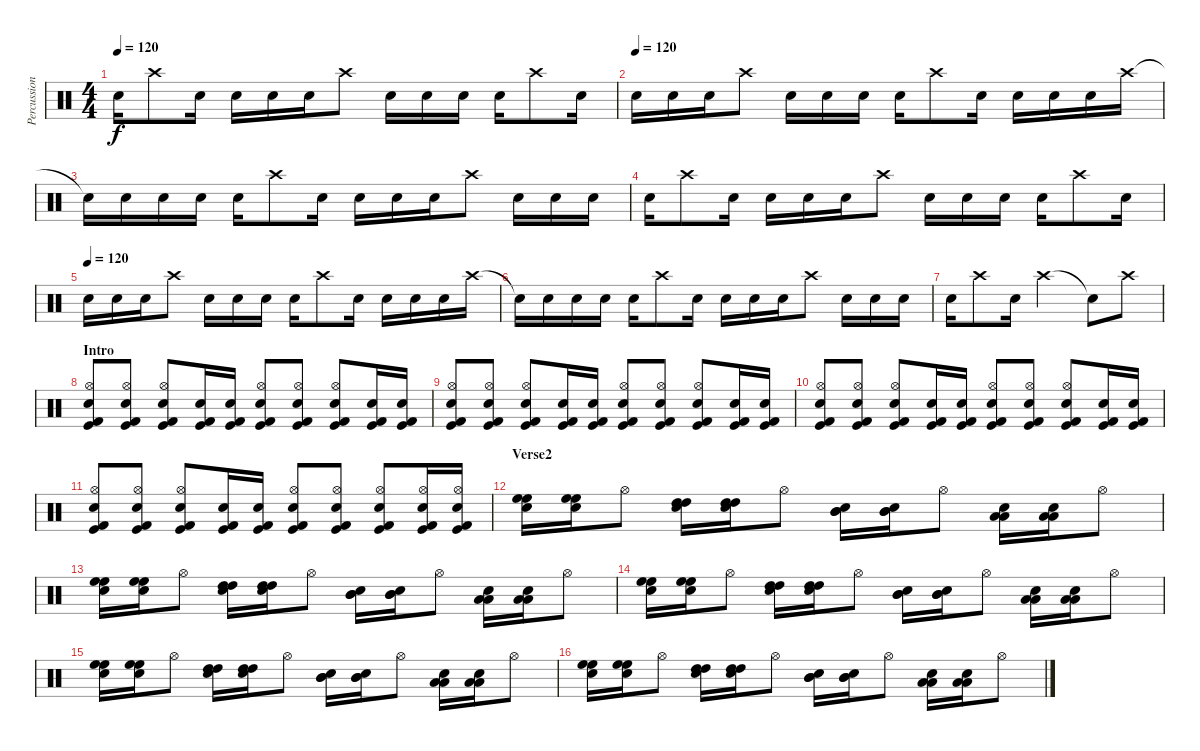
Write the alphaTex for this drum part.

\track ("Percussion" "Percussion") {instrument percussion}
\staff {score}
\articulation defaults
\ts (4 4)
\tempo 120
\clef neutral
\ks c "Electric Snare (hit)".16{dy f} "Crash high (hit)".8 "Electric Snare (hit)".16 "Electric Snare (hit)".16 "Electric Snare (hit)".16 "Electric Snare (hit)".16 "Crash high (hit)".8 "Electric Snare (hit)".16 "Electric Snare (hit)".16 "Electric Snare (hit)".16 "Electric Snare (hit)".16 "Crash high (hit)".8 "Electric Snare (hit)".16
|
\tempo (120)
"Electric Snare (hit)".16 "Electric Snare (hit)".16 "Electric Snare (hit)".16 "Crash high (hit)".8 "Electric Snare (hit)".16 "Electric Snare (hit)".16 "Electric Snare (hit)".16 "Electric Snare (hit)".16 "Crash high (hit)".8 "Electric Snare (hit)".16 "Electric Snare (hit)".16 "Electric Snare (hit)".16 "Electric Snare (hit)".16 "Crash high (hit)".16 |
"Snare (hit)"{t}.16 "Electric Snare (hit)".16 "Electric Snare (hit)".16 "Electric Snare (hit)".16 "Electric Snare (hit)".16 "Crash high (hit)".8 "Electric Snare (hit)".16 "Electric Snare (hit)".16 "Electric Snare (hit)".16 "Electric Snare (hit)".16 "Crash high (hit)".8 "Electric Snare (hit)".16 "Electric Snare (hit)".16 "Electric Snare (hit)".16 |
"Electric Snare (hit)".16 "Crash high (hit)".8 "Electric Snare (hit)".16 "Electric Snare (hit)".16 "Electric Snare (hit)".16 "Electric Snare (hit)".16 "Crash high (hit)".8 "Electric Snare (hit)".16 "Electric Snare (hit)".16 "Electric Snare (hit)".16 "Electric Snare (hit)".16 "Crash high (hit)".8 "Electric Snare (hit)".16 |
\tempo (120)
"Electric Snare (hit)".16 "Electric Snare (hit)".16 "Electric Snare (hit)".16 "Crash high (hit)".8 "Electric Snare (hit)".16 "Electric Snare (hit)".16 "Electric Snare (hit)".16 "Electric Snare (hit)".16 "Crash high (hit)".8 "Electric Snare (hit)".16 "Electric Snare (hit)".16 "Electric Snare (hit)".16 "Electric Snare (hit)".16 "Crash high (hit)".16 |
"Snare (hit)"{t}.16 "Electric Snare (hit)".16 "Electric Snare (hit)".16 "Electric Snare (hit)".16 "Electric Snare (hit)".16 "Crash high (hit)".8 "Electric Snare (hit)".16 "Electric Snare (hit)".16 "Electric Snare (hit)".16 "Electric Snare (hit)".16 "Crash high (hit)".8 "Electric Snare (hit)".16 "Electric Snare (hit)".16 "Electric Snare (hit)".16 |
"Electric Snare (hit)".16 "Crash high (hit)".8 "Electric Snare (hit)".16 "Crash high (hit)".2 "Snare (hit)"{t}.8 "Crash high (hit)".8 |
\section ("" "Intro")
("Snare (hit) 2" "Hi-Hat (open)" "Kick (hit) 2" "Kick (hit)").8 ("Snare (hit) 2" "Hi-Hat (open)" "Kick (hit) 2" "Kick (hit)").8 ("Snare (hit) 2" "Hi-Hat (open)" "Kick (hit) 2" "Kick (hit)").8 ("Kick (hit) 2" "Kick (hit)" "Electric Snare (hit)").16 ("Kick (hit) 2" "Kick (hit)" "Electric Snare (hit)").16 ("Snare (hit) 2" "Hi-Hat (open)" "Kick (hit) 2" "Kick (hit)").8 ("Snare (hit) 2" "Hi-Hat (open)" "Kick (hit) 2" "Kick (hit)").8 ("Snare (hit) 2" "Hi-Hat (open)" "Kick (hit) 2" "Kick (hit)").8 ("Kick (hit) 2" "Kick (hit)" "Electric Snare (hit)").16 ("Kick (hit) 2" "Kick (hit)" "Electric Snare (hit)").16 |
("Snare (hit) 2" "Hi-Hat (open)" "Kick (hit) 2" "Kick (hit)").8 ("Snare (hit) 2" "Hi-Hat (open)" "Kick (hit) 2" "Kick (hit)").8 ("Snare (hit) 2" "Hi-Hat (open)" "Kick (hit) 2" "Kick (hit)").8 ("Kick (hit) 2" "Kick (hit)" "Electric Snare (hit)").16 ("Kick (hit) 2" "Kick (hit)" "Electric Snare (hit)").16 ("Snare (hit) 2" "Hi-Hat (open)" "Kick (hit) 2" "Kick (hit)").8 ("Snare (hit) 2" "Hi-Hat (open)" "Kick (hit) 2" "Kick (hit)").8 ("Snare (hit) 2" "Hi-Hat (open)" "Kick (hit) 2" "Kick (hit)").8 ("Kick (hit) 2" "Kick (hit)" "Electric Snare (hit)").16 ("Kick (hit) 2" "Kick (hit)" "Electric Snare (hit)").16 |
("Snare (hit) 2" "Hi-Hat (open)" "Kick (hit) 2" "Kick (hit)").8 ("Snare (hit) 2" "Hi-Hat (open)" "Kick (hit) 2" "Kick (hit)").8 ("Snare (hit) 2" "Hi-Hat (open)" "Kick (hit) 2" "Kick (hit)").8 ("Kick (hit) 2" "Kick (hit)" "Electric Snare (hit)").16 ("Kick (hit) 2" "Kick (hit)" "Electric Snare (hit)").16 ("Snare (hit) 2" "Hi-Hat (open)" "Kick (hit) 2" "Kick (hit)").8 ("Snare (hit) 2" "Hi-Hat (open)" "Kick (hit) 2" "Kick (hit)").8 ("Snare (hit) 2" "Hi-Hat (open)" "Kick (hit) 2" "Kick (hit)").8 ("Kick (hit) 2" "Kick (hit)" "Electric Snare (hit)").16 ("Kick (hit) 2" "Kick (hit)" "Electric Snare (hit)").16 |
("Snare (hit) 2" "Hi-Hat (open)" "Kick (hit) 2" "Kick (hit)").8 ("Snare (hit) 2" "Hi-Hat (open)" "Kick (hit) 2" "Kick (hit)").8 ("Snare (hit) 2" "Hi-Hat (open)" "Kick (hit) 2" "Kick (hit)").8 ("Kick (hit) 2" "Kick (hit)" "Electric Snare (hit)").16 ("Kick (hit) 2" "Kick (hit)" "Electric Snare (hit)").16 ("Snare (hit) 2" "Hi-Hat (open)" "Kick (hit) 2" "Kick (hit)").8 ("Snare (hit) 2" "Hi-Hat (open)" "Kick (hit) 2" "Kick (hit)").8 ("Snare (hit) 2" "Hi-Hat (open)" "Kick (hit) 2" "Kick (hit)").8 ("Kick (hit) 2" "Kick (hit)" "Electric Snare (hit)" "Hi-Hat (open)").16 ("Kick (hit) 2" "Kick (hit)" "Electric Snare (hit)" "Hi-Hat (open)").16 |
\section ("" "Verse2")
("Snare (hit) 2" "High Floor Tom (hit)" "High Floor Tom (hit)").16 ("Snare (hit) 2" "High Floor Tom (hit)" "High Floor Tom (hit)").16 "Hi-Hat (open)".8 ("Snare (hit) 2" "High Tom (hit)" "High Tom (hit)").16 ("Snare (hit) 2" "High Tom (hit)" "High Tom (hit)").16 "Hi-Hat (open)".8 ("Snare (hit) 2" "Mid Tom (hit)" "Mid Tom (hit)").16 ("Snare (hit) 2" "Mid Tom (hit)" "Mid Tom (hit)").16 "Hi-Hat (open)".8 ("Snare (hit) 2" "Low Tom (hit)" "Low Tom (hit)").16 ("Snare (hit) 2" "Low Tom (hit)" "Low Tom (hit)").16 "Hi-Hat (open)".8 |
("Snare (hit) 2" "High Floor Tom (hit)" "High Floor Tom (hit)").16 ("Snare (hit) 2" "High Floor Tom (hit)" "High Floor Tom (hit)").16 "Hi-Hat (open)".8 ("Snare (hit) 2" "High Tom (hit)" "High Tom (hit)").16 ("Snare (hit) 2" "High Tom (hit)" "High Tom (hit)").16 "Hi-Hat (open)".8 ("Snare (hit) 2" "Mid Tom (hit)" "Mid Tom (hit)").16 ("Snare (hit) 2" "Mid Tom (hit)" "Mid Tom (hit)").16 "Hi-Hat (open)".8 ("Snare (hit) 2" "Low Tom (hit)" "Low Tom (hit)").16 ("Snare (hit) 2" "Low Tom (hit)" "Low Tom (hit)").16 "Hi-Hat (open)".8 |
("Snare (hit) 2" "High Floor Tom (hit)" "High Floor Tom (hit)").16 ("Snare (hit) 2" "High Floor Tom (hit)" "High Floor Tom (hit)").16 "Hi-Hat (open)".8 ("Snare (hit) 2" "High Tom (hit)" "High Tom (hit)").16 ("Snare (hit) 2" "High Tom (hit)" "High Tom (hit)").16 "Hi-Hat (open)".8 ("Snare (hit) 2" "Mid Tom (hit)" "Mid Tom (hit)").16 ("Snare (hit) 2" "Mid Tom (hit)" "Mid Tom (hit)").16 "Hi-Hat (open)".8 ("Snare (hit) 2" "Low Tom (hit)" "Low Tom (hit)").16 ("Snare (hit) 2" "Low Tom (hit)" "Low Tom (hit)").16 "Hi-Hat (open)".8 |
("Snare (hit) 2" "High Floor Tom (hit)" "High Floor Tom (hit)").16 ("Snare (hit) 2" "High Floor Tom (hit)" "High Floor Tom (hit)").16 "Hi-Hat (open)".8 ("Snare (hit) 2" "High Tom (hit)" "High Tom (hit)").16 ("Snare (hit) 2" "High Tom (hit)" "High Tom (hit)").16 "Hi-Hat (open)".8 ("Snare (hit) 2" "Mid Tom (hit)" "Mid Tom (hit)").16 ("Snare (hit) 2" "Mid Tom (hit)" "Mid Tom (hit)").16 "Hi-Hat (open)".8 ("Snare (hit) 2" "Low Tom (hit)" "Low Tom (hit)").16 ("Snare (hit) 2" "Low Tom (hit)" "Low Tom (hit)").16 "Hi-Hat (open)".8 |
("Snare (hit) 2" "High Floor Tom (hit)" "High Floor Tom (hit)").16 ("Snare (hit) 2" "High Floor Tom (hit)" "High Floor Tom (hit)").16 "Hi-Hat (open)".8 ("Snare (hit) 2" "High Tom (hit)" "High Tom (hit)").16 ("Snare (hit) 2" "High Tom (hit)" "High Tom (hit)").16 "Hi-Hat (open)".8 ("Snare (hit) 2" "Mid Tom (hit)" "Mid Tom (hit)").16 ("Snare (hit) 2" "Mid Tom (hit)" "Mid Tom (hit)").16 "Hi-Hat (open)".8 ("Snare (hit) 2" "Low Tom (hit)" "Low Tom (hit)").16 ("Snare (hit) 2" "Low Tom (hit)" "Low Tom (hit)").16 "Hi-Hat (open)".8
